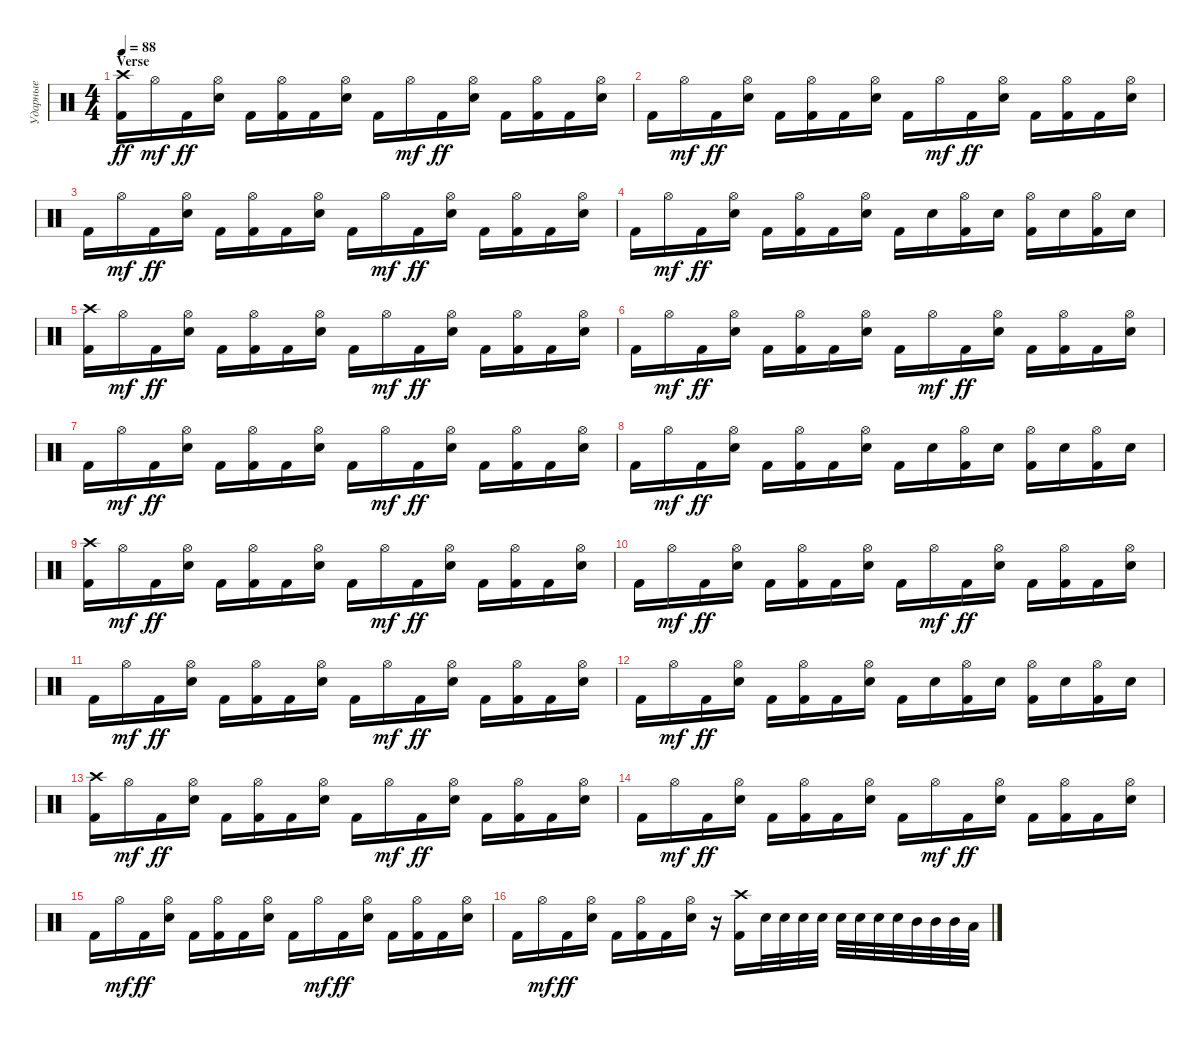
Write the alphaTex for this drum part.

\track ("Ударные" "Ударные") {instrument percussion}
\staff {score}
\articulation defaults
\ts (4 4)
\section ("" "Verse")
\tempo 88
\clef neutral
\ks c
("Crash high (hit)" "Kick (hit) 2").16{dy ff} "Hi-Hat (open)".16{dy mf} "Kick (hit) 2".16{dy ff} ("Hi-Hat (open)" "Snare (hit) 2").16 "Kick (hit) 2".16 ("Hi-Hat (open)" "Kick (hit) 2").16 "Kick (hit) 2".16 ("Hi-Hat (open)" "Snare (hit) 2").16 "Kick (hit) 2".16 "Hi-Hat (open)".16{dy mf} "Kick (hit) 2".16{dy ff} ("Hi-Hat (open)" "Snare (hit) 2").16 "Kick (hit) 2".16 ("Hi-Hat (open)" "Kick (hit) 2").16 "Kick (hit) 2".16 ("Hi-Hat (open)" "Snare (hit) 2").16 |
"Kick (hit) 2".16 "Hi-Hat (open)".16{dy mf} "Kick (hit) 2".16{dy ff} ("Hi-Hat (open)" "Snare (hit) 2").16 "Kick (hit) 2".16 ("Hi-Hat (open)" "Kick (hit) 2").16 "Kick (hit) 2".16 ("Hi-Hat (open)" "Snare (hit) 2").16 "Kick (hit) 2".16 "Hi-Hat (open)".16{dy mf} "Kick (hit) 2".16{dy ff} ("Hi-Hat (open)" "Snare (hit) 2").16 "Kick (hit) 2".16 ("Hi-Hat (open)" "Kick (hit) 2").16 "Kick (hit) 2".16 ("Hi-Hat (open)" "Snare (hit) 2").16 |
"Kick (hit) 2".16 "Hi-Hat (open)".16{dy mf} "Kick (hit) 2".16{dy ff} ("Hi-Hat (open)" "Snare (hit) 2").16 "Kick (hit) 2".16 ("Hi-Hat (open)" "Kick (hit) 2").16 "Kick (hit) 2".16 ("Hi-Hat (open)" "Snare (hit) 2").16 "Kick (hit) 2".16 "Hi-Hat (open)".16{dy mf} "Kick (hit) 2".16{dy ff} ("Hi-Hat (open)" "Snare (hit) 2").16 "Kick (hit) 2".16 ("Hi-Hat (open)" "Kick (hit) 2").16 "Kick (hit) 2".16 ("Hi-Hat (open)" "Snare (hit) 2").16 |
"Kick (hit) 2".16 "Hi-Hat (open)".16{dy mf} "Kick (hit) 2".16{dy ff} ("Hi-Hat (open)" "Snare (hit) 2").16 "Kick (hit) 2".16 ("Hi-Hat (open)" "Kick (hit) 2").16 "Kick (hit) 2".16 ("Hi-Hat (open)" "Snare (hit) 2").16 "Kick (hit) 2".16 "Snare (hit) 2".16 ("Hi-Hat (open)" "Kick (hit) 2").16 "Snare (hit) 2".16 ("Hi-Hat (open)" "Kick (hit) 2").16 "Snare (hit) 2".16 ("Hi-Hat (open)" "Kick (hit) 2").16 "Snare (hit) 2".16 |
("Crash high (hit)" "Kick (hit) 2").16 "Hi-Hat (open)".16{dy mf} "Kick (hit) 2".16{dy ff} ("Hi-Hat (open)" "Snare (hit) 2").16 "Kick (hit) 2".16 ("Hi-Hat (open)" "Kick (hit) 2").16 "Kick (hit) 2".16 ("Hi-Hat (open)" "Snare (hit) 2").16 "Kick (hit) 2".16 "Hi-Hat (open)".16{dy mf} "Kick (hit) 2".16{dy ff} ("Hi-Hat (open)" "Snare (hit) 2").16 "Kick (hit) 2".16 ("Hi-Hat (open)" "Kick (hit) 2").16 "Kick (hit) 2".16 ("Hi-Hat (open)" "Snare (hit) 2").16 |
"Kick (hit) 2".16 "Hi-Hat (open)".16{dy mf} "Kick (hit) 2".16{dy ff} ("Hi-Hat (open)" "Snare (hit) 2").16 "Kick (hit) 2".16 ("Hi-Hat (open)" "Kick (hit) 2").16 "Kick (hit) 2".16 ("Hi-Hat (open)" "Snare (hit) 2").16 "Kick (hit) 2".16 "Hi-Hat (open)".16{dy mf} "Kick (hit) 2".16{dy ff} ("Hi-Hat (open)" "Snare (hit) 2").16 "Kick (hit) 2".16 ("Hi-Hat (open)" "Kick (hit) 2").16 "Kick (hit) 2".16 ("Hi-Hat (open)" "Snare (hit) 2").16 |
"Kick (hit) 2".16 "Hi-Hat (open)".16{dy mf} "Kick (hit) 2".16{dy ff} ("Hi-Hat (open)" "Snare (hit) 2").16 "Kick (hit) 2".16 ("Hi-Hat (open)" "Kick (hit) 2").16 "Kick (hit) 2".16 ("Hi-Hat (open)" "Snare (hit) 2").16 "Kick (hit) 2".16 "Hi-Hat (open)".16{dy mf} "Kick (hit) 2".16{dy ff} ("Hi-Hat (open)" "Snare (hit) 2").16 "Kick (hit) 2".16 ("Hi-Hat (open)" "Kick (hit) 2").16 "Kick (hit) 2".16 ("Hi-Hat (open)" "Snare (hit) 2").16 |
"Kick (hit) 2".16 "Hi-Hat (open)".16{dy mf} "Kick (hit) 2".16{dy ff} ("Hi-Hat (open)" "Snare (hit) 2").16 "Kick (hit) 2".16 ("Hi-Hat (open)" "Kick (hit) 2").16 "Kick (hit) 2".16 ("Hi-Hat (open)" "Snare (hit) 2").16 "Kick (hit) 2".16 "Snare (hit) 2".16 ("Hi-Hat (open)" "Kick (hit) 2").16 "Snare (hit) 2".16 ("Hi-Hat (open)" "Kick (hit) 2").16 "Snare (hit) 2".16 ("Hi-Hat (open)" "Kick (hit) 2").16 "Snare (hit) 2".16 |
("Crash high (hit)" "Kick (hit) 2").16 "Hi-Hat (open)".16{dy mf} "Kick (hit) 2".16{dy ff} ("Hi-Hat (open)" "Snare (hit) 2").16 "Kick (hit) 2".16 ("Hi-Hat (open)" "Kick (hit) 2").16 "Kick (hit) 2".16 ("Hi-Hat (open)" "Snare (hit) 2").16 "Kick (hit) 2".16 "Hi-Hat (open)".16{dy mf} "Kick (hit) 2".16{dy ff} ("Hi-Hat (open)" "Snare (hit) 2").16 "Kick (hit) 2".16 ("Hi-Hat (open)" "Kick (hit) 2").16 "Kick (hit) 2".16 ("Hi-Hat (open)" "Snare (hit) 2").16 |
"Kick (hit) 2".16 "Hi-Hat (open)".16{dy mf} "Kick (hit) 2".16{dy ff} ("Hi-Hat (open)" "Snare (hit) 2").16 "Kick (hit) 2".16 ("Hi-Hat (open)" "Kick (hit) 2").16 "Kick (hit) 2".16 ("Hi-Hat (open)" "Snare (hit) 2").16 "Kick (hit) 2".16 "Hi-Hat (open)".16{dy mf} "Kick (hit) 2".16{dy ff} ("Hi-Hat (open)" "Snare (hit) 2").16 "Kick (hit) 2".16 ("Hi-Hat (open)" "Kick (hit) 2").16 "Kick (hit) 2".16 ("Hi-Hat (open)" "Snare (hit) 2").16 |
"Kick (hit) 2".16 "Hi-Hat (open)".16{dy mf} "Kick (hit) 2".16{dy ff} ("Hi-Hat (open)" "Snare (hit) 2").16 "Kick (hit) 2".16 ("Hi-Hat (open)" "Kick (hit) 2").16 "Kick (hit) 2".16 ("Hi-Hat (open)" "Snare (hit) 2").16 "Kick (hit) 2".16 "Hi-Hat (open)".16{dy mf} "Kick (hit) 2".16{dy ff} ("Hi-Hat (open)" "Snare (hit) 2").16 "Kick (hit) 2".16 ("Hi-Hat (open)" "Kick (hit) 2").16 "Kick (hit) 2".16 ("Hi-Hat (open)" "Snare (hit) 2").16 |
"Kick (hit) 2".16 "Hi-Hat (open)".16{dy mf} "Kick (hit) 2".16{dy ff} ("Hi-Hat (open)" "Snare (hit) 2").16 "Kick (hit) 2".16 ("Hi-Hat (open)" "Kick (hit) 2").16 "Kick (hit) 2".16 ("Hi-Hat (open)" "Snare (hit) 2").16 "Kick (hit) 2".16 "Snare (hit) 2".16 ("Hi-Hat (open)" "Kick (hit) 2").16 "Snare (hit) 2".16 ("Hi-Hat (open)" "Kick (hit) 2").16 "Snare (hit) 2".16 ("Hi-Hat (open)" "Kick (hit) 2").16 "Snare (hit) 2".16 |
("Crash high (hit)" "Kick (hit) 2").16 "Hi-Hat (open)".16{dy mf} "Kick (hit) 2".16{dy ff} ("Hi-Hat (open)" "Snare (hit) 2").16 "Kick (hit) 2".16 ("Hi-Hat (open)" "Kick (hit) 2").16 "Kick (hit) 2".16 ("Hi-Hat (open)" "Snare (hit) 2").16 "Kick (hit) 2".16 "Hi-Hat (open)".16{dy mf} "Kick (hit) 2".16{dy ff} ("Hi-Hat (open)" "Snare (hit) 2").16 "Kick (hit) 2".16 ("Hi-Hat (open)" "Kick (hit) 2").16 "Kick (hit) 2".16 ("Hi-Hat (open)" "Snare (hit) 2").16 |
"Kick (hit) 2".16 "Hi-Hat (open)".16{dy mf} "Kick (hit) 2".16{dy ff} ("Hi-Hat (open)" "Snare (hit) 2").16 "Kick (hit) 2".16 ("Hi-Hat (open)" "Kick (hit) 2").16 "Kick (hit) 2".16 ("Hi-Hat (open)" "Snare (hit) 2").16 "Kick (hit) 2".16 "Hi-Hat (open)".16{dy mf} "Kick (hit) 2".16{dy ff} ("Hi-Hat (open)" "Snare (hit) 2").16 "Kick (hit) 2".16 ("Hi-Hat (open)" "Kick (hit) 2").16 "Kick (hit) 2".16 ("Hi-Hat (open)" "Snare (hit) 2").16 |
"Kick (hit) 2".16 "Hi-Hat (open)".16{dy mf} "Kick (hit) 2".16{dy ff} ("Hi-Hat (open)" "Snare (hit) 2").16 "Kick (hit) 2".16 ("Hi-Hat (open)" "Kick (hit) 2").16 "Kick (hit) 2".16 ("Hi-Hat (open)" "Snare (hit) 2").16 "Kick (hit) 2".16 "Hi-Hat (open)".16{dy mf} "Kick (hit) 2".16{dy ff} ("Hi-Hat (open)" "Snare (hit) 2").16 "Kick (hit) 2".16 ("Hi-Hat (open)" "Kick (hit) 2").16 "Kick (hit) 2".16 ("Hi-Hat (open)" "Snare (hit) 2").16 |
"Kick (hit) 2".16 "Hi-Hat (open)".16{dy mf} "Kick (hit) 2".16{dy ff} ("Hi-Hat (open)" "Snare (hit) 2").16 "Kick (hit) 2".16 ("Hi-Hat (open)" "Kick (hit) 2").16 "Kick (hit) 2".16 ("Hi-Hat (open)" "Snare (hit) 2").16 r.16 ("Crash high (hit)" "Kick (hit) 2").16 "Snare (hit) 2".32 "Snare (hit) 2".32 "Snare (hit) 2".32 "Snare (hit) 2".32 "Snare (hit) 2".32 "Snare (hit) 2".32 "Snare (hit) 2".32 "Snare (hit) 2".32 "Mid Tom (hit)".32 "Mid Tom (hit)".32 "Mid Tom (hit)".32 "Low Tom (hit)".32
